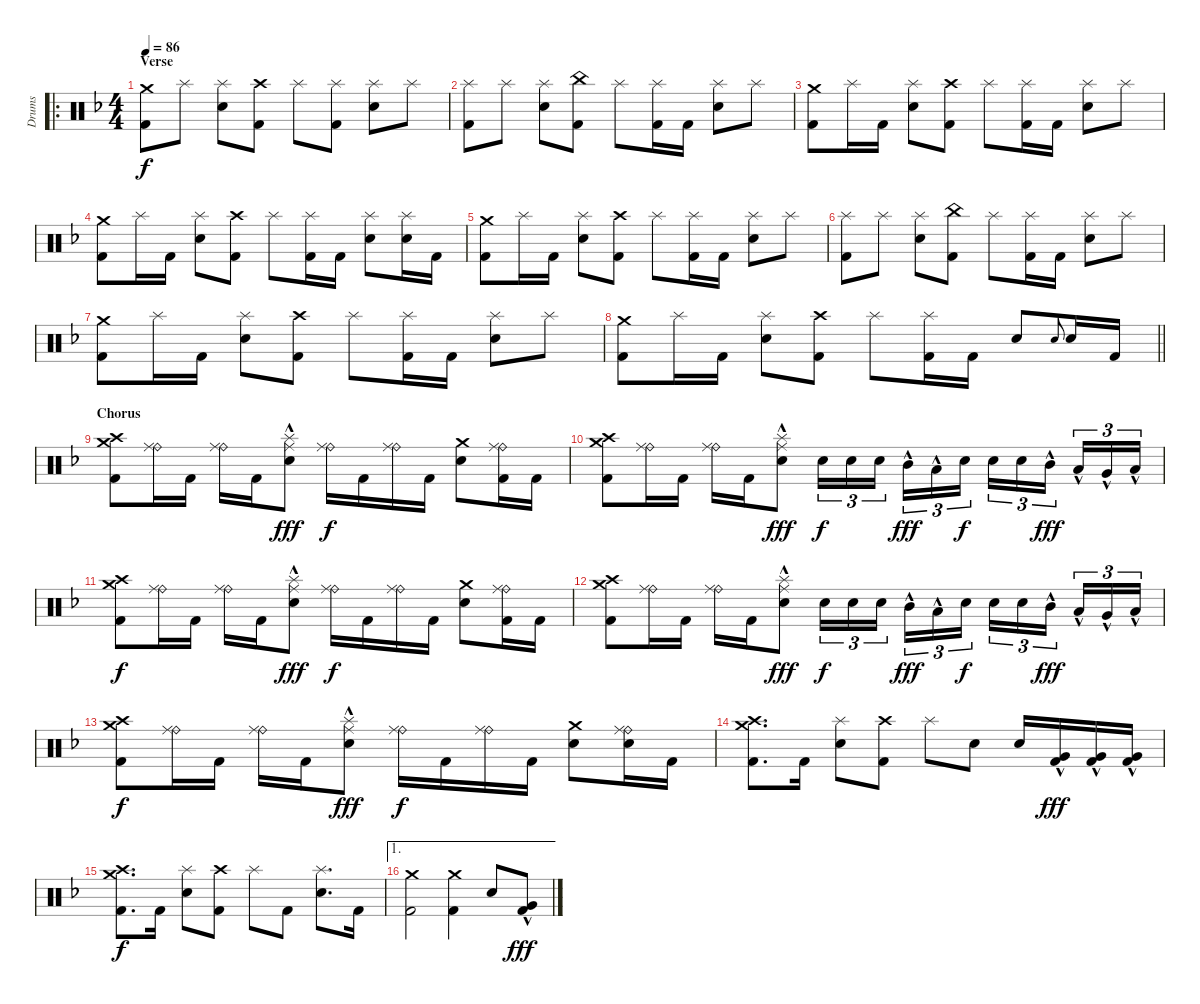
\track ("Drums" "Drums") {instrument percussion}
\staff {score}
\articulation defaults
\ro
\ts (4 4)
\section ("" "Verse")
\tempo 86
\clef neutral
\ks dminor
("Crash medium (hit)" "Kick (hit) 2").8{dy f} "Splash (hit)".8 ("Splash (hit)" "Snare (hit) 2").8 ("Crash high (hit)" "Kick (hit) 2").8 "Splash (hit)".8 ("Splash (hit)" "Kick (hit) 2").8 ("Splash (hit)" "Snare (hit) 2").8 "Splash (hit)".8 |
("Splash (hit)" "Kick (hit) 2").8 "Splash (hit)".8 ("Splash (hit)" "Snare (hit) 2").8 ("China (hit)" "Kick (hit) 2").8 "Splash (hit)".8 ("Splash (hit)" "Kick (hit) 2").16 "Kick (hit) 2".16 ("Splash (hit)" "Snare (hit) 2").8 "Splash (hit)".8 |
("Crash medium (hit)" "Kick (hit) 2").8 "Splash (hit)".16 "Kick (hit) 2".16 ("Splash (hit)" "Snare (hit) 2").8 ("Crash high (hit)" "Kick (hit) 2").8 "Splash (hit)".8 ("Splash (hit)" "Kick (hit) 2").16 "Kick (hit) 2".16 ("Splash (hit)" "Snare (hit) 2").8 "Splash (hit)".8 |
("Crash medium (hit)" "Kick (hit) 2").8 "Splash (hit)".16 "Kick (hit) 2".16 ("Splash (hit)" "Snare (hit) 2").8 ("Crash high (hit)" "Kick (hit) 2").8 "Splash (hit)".8 ("Splash (hit)" "Kick (hit) 2").16 "Kick (hit) 2".16 ("Splash (hit)" "Snare (hit) 2").8 ("Splash (hit)" "Snare (hit) 2").16 "Kick (hit) 2".16 |
("Crash medium (hit)" "Kick (hit) 2").8 "Splash (hit)".16 "Kick (hit) 2".16 ("Splash (hit)" "Snare (hit) 2").8 ("Crash high (hit)" "Kick (hit) 2").8 "Splash (hit)".8 ("Splash (hit)" "Kick (hit) 2").16 "Kick (hit) 2".16 ("Splash (hit)" "Snare (hit) 2").8 "Splash (hit)".8 |
("Splash (hit)" "Kick (hit) 2").8 "Splash (hit)".8 ("Splash (hit)" "Snare (hit) 2").8 ("China (hit)" "Kick (hit) 2").8 "Splash (hit)".8 ("Splash (hit)" "Kick (hit) 2").16 "Kick (hit) 2".16 ("Splash (hit)" "Snare (hit) 2").8 "Splash (hit)".8 |
("Crash medium (hit)" "Kick (hit) 2").8 "Splash (hit)".16 "Kick (hit) 2".16 ("Splash (hit)" "Snare (hit) 2").8 ("Crash high (hit)" "Kick (hit) 2").8 "Splash (hit)".8 ("Splash (hit)" "Kick (hit) 2").16 "Kick (hit) 2".16 ("Splash (hit)" "Snare (hit) 2").8 "Splash (hit)".8 |
\barLineRight lightlight
("Crash medium (hit)" "Kick (hit) 2").8 "Splash (hit)".16 "Kick (hit) 2".16 ("Splash (hit)" "Snare (hit) 2").8 ("Crash high (hit)" "Kick (hit) 2").8 "Splash (hit)".8 ("Splash (hit)" "Kick (hit) 2").16 "Kick (hit) 2".16 "Snare (hit) 2".8 "Snare (hit) 2".8{gr onbeat} "Snare (hit) 2".16 "Kick (hit) 2".16 |
\section ("" "Chorus")
("Crash medium (hit)" "Crash high (hit)" "Kick (hit) 2").8 ("Ride (bell)" "Ride (middle)").16 "Kick (hit) 2".16 ("Ride (bell)" "Ride (middle)").16 "Kick (hit) 2".16 ("Splash (hit)"{hac} "Ride (middle)" "Snare (hit) 2").8{dy fff} ("Ride (bell)" "Ride (middle)").16{dy f} "Kick (hit) 2".16 ("Ride (bell)" "Ride (middle)").16 "Kick (hit) 2".16 ("Crash medium (hit)" "Snare (hit) 2").8 ("Ride (bell)" "Ride (middle)" "Kick (hit) 2").16 "Kick (hit) 2".16 |
("Crash medium (hit)" "Crash high (hit)" "Kick (hit) 2").8 ("Ride (bell)" "Ride (middle)").16 "Kick (hit) 2".16 ("Ride (bell)" "Ride (middle)").16 "Kick (hit) 2".16 ("Splash (hit)"{hac} "Ride (middle)" "Snare (hit) 2").8{dy fff} "Snare (hit) 2".16{tu (3 2) dy f} "Snare (hit) 2".16{tu (3 2)} "Snare (hit) 2".16{tu (3 2) beam splitsecondary} "Mid Tom (hit)"{hac}.16{tu (3 2) dy fff} "Low Tom (hit)"{hac}.16{tu (3 2)} "Snare (hit) 2".16{tu (3 2) dy f} "Snare (hit) 2".16{tu (3 2)} "Snare (hit) 2".16{tu (3 2)} "Mid Tom (hit)"{hac}.16{tu (3 2) dy fff beam splitsecondary} "Low Tom (hit)"{hac}.16{tu (3 2)} "Very Low Tom (hit)"{hac}.16{tu (3 2)} "Low Floor Tom (hit)"{hac}.16{tu (3 2)} |
("Crash medium (hit)" "Crash high (hit)" "Kick (hit) 2").8{dy f} ("Ride (bell)" "Ride (middle)").16 "Kick (hit) 2".16 ("Ride (bell)" "Ride (middle)").16 "Kick (hit) 2".16 ("Splash (hit)"{hac} "Ride (middle)" "Snare (hit) 2").8{dy fff} ("Ride (bell)" "Ride (middle)").16{dy f} "Kick (hit) 2".16 ("Ride (bell)" "Ride (middle)").16 "Kick (hit) 2".16 ("Crash medium (hit)" "Snare (hit) 2").8 ("Ride (bell)" "Ride (middle)" "Kick (hit) 2").16 "Kick (hit) 2".16 |
("Crash medium (hit)" "Crash high (hit)" "Kick (hit) 2").8 ("Ride (bell)" "Ride (middle)").16 "Kick (hit) 2".16 ("Ride (bell)" "Ride (middle)").16 "Kick (hit) 2".16 ("Splash (hit)"{hac} "Ride (middle)" "Snare (hit) 2").8{dy fff} "Snare (hit) 2".16{tu (3 2) dy f} "Snare (hit) 2".16{tu (3 2)} "Snare (hit) 2".16{tu (3 2) beam splitsecondary} "Mid Tom (hit)"{hac}.16{tu (3 2) dy fff} "Low Tom (hit)"{hac}.16{tu (3 2)} "Snare (hit) 2".16{tu (3 2) dy f} "Snare (hit) 2".16{tu (3 2)} "Snare (hit) 2".16{tu (3 2)} "Mid Tom (hit)"{hac}.16{tu (3 2) dy fff beam splitsecondary} "Low Tom (hit)"{hac}.16{tu (3 2)} "Very Low Tom (hit)"{hac}.16{tu (3 2)} "Low Floor Tom (hit)"{hac}.16{tu (3 2)} |
("Crash medium (hit)" "Crash high (hit)" "Kick (hit) 2").8{dy f} ("Ride (bell)" "Ride (middle)").16 "Kick (hit) 2".16 ("Ride (bell)" "Ride (middle)").16 "Kick (hit) 2".16 ("Splash (hit)"{hac} "Ride (middle)" "Snare (hit) 2").8{dy fff} ("Ride (bell)" "Ride (middle)").16{dy f} "Kick (hit) 2".16 ("Ride (bell)" "Ride (middle)").16 "Kick (hit) 2".16 ("Crash medium (hit)" "Snare (hit) 2").8 ("Ride (bell)" "Ride (middle)" "Snare (hit) 2").16 "Kick (hit) 2".16 |
("Crash medium (hit)" "Crash high (hit)" "Kick (hit) 2").8{d} "Kick (hit) 2".16 ("Splash (hit)" "Snare (hit) 2").8 ("Crash high (hit)" "Kick (hit) 2").8 "Splash (hit)".8 "Snare (hit) 2".8 "Snare (hit) 2".16 ("Very Low Tom (hit)"{hac} "Kick (hit) 2").16{dy fff} ("Very Low Tom (hit)"{hac} "Kick (hit) 2").16 ("Very Low Tom (hit)"{hac} "Kick (hit) 2").16 |
("Crash medium (hit)" "Crash high (hit)" "Kick (hit) 2").8{d dy f} "Kick (hit) 2".16 ("Splash (hit)" "Snare (hit) 2").8 ("Crash high (hit)" "Kick (hit) 2").8 "Splash (hit)".8 "Kick (hit) 2".8 ("Splash (hit)" "Snare (hit) 2").8{d} "Kick (hit) 2".16 |
\ae 1
("Crash medium (hit)" "Kick (hit) 2").2 ("Crash medium (hit)" "Kick (hit) 2").4 "Snare (hit) 2".8 ("Very Low Tom (hit)"{hac} "Kick (hit) 2").8{dy fff}
